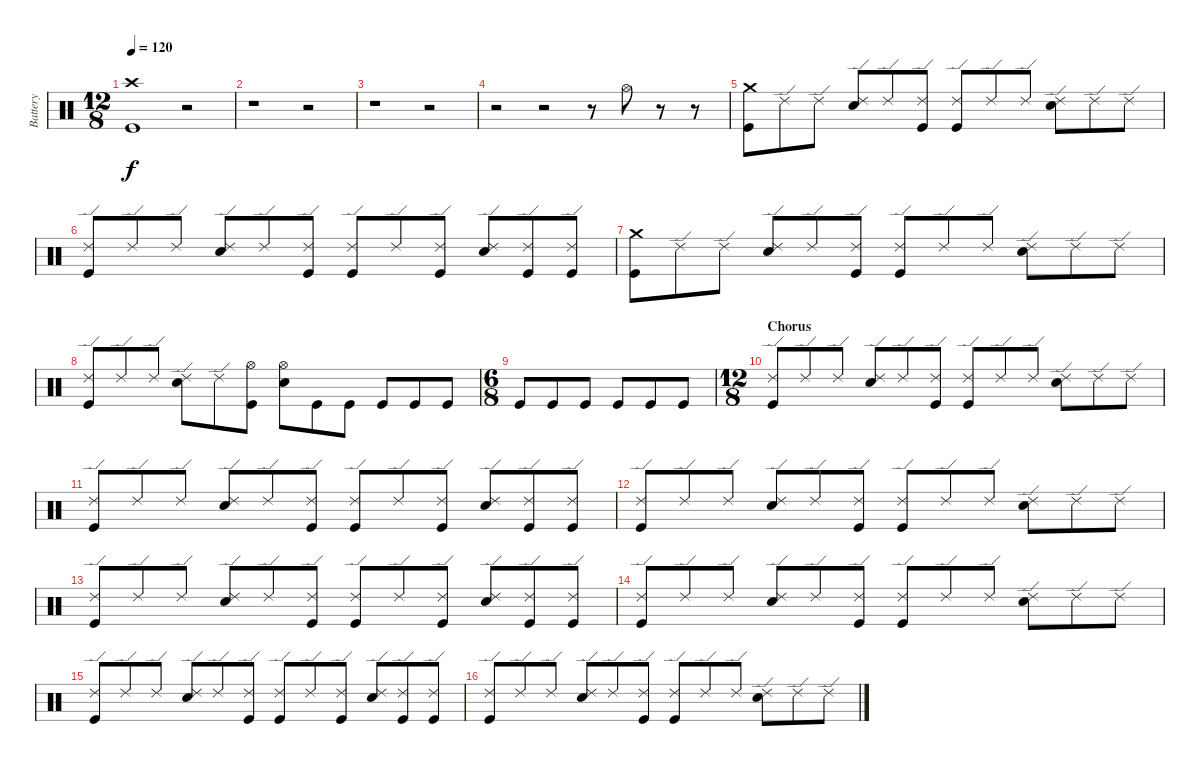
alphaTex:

\track ("Battery" "Battery") {instrument percussion}
\staff {score}
\articulation defaults
\ts (12 8)
\tempo 120
\clef neutral
\ks c
("Crash high (hit)" "Kick (hit)").1{dy f} r.2 |
r.1 r.2 |
r.1 r.2 |
r.2 r.2 r.8 "Hi-Hat (open)".8 r.8 r.8 |
("Crash medium (hit)" "Kick (hit)").8 "Ride (edge) 2".8 "Ride (edge) 2".8 ("Ride (edge) 2" "Electric Snare (hit)").8 "Ride (edge) 2".8 ("Ride (edge) 2" "Kick (hit)").8 ("Ride (edge) 2" "Kick (hit)").8 "Ride (edge) 2".8 "Ride (edge) 2".8 ("Ride (edge) 2" "Electric Snare (hit)").8 "Ride (edge) 2".8 "Ride (edge) 2".8 |
("Ride (edge) 2" "Kick (hit)").8 "Ride (edge) 2".8 "Ride (edge) 2".8 ("Ride (edge) 2" "Electric Snare (hit)").8 "Ride (edge) 2".8 ("Ride (edge) 2" "Kick (hit)").8 ("Ride (edge) 2" "Kick (hit)").8 "Ride (edge) 2".8 ("Ride (edge) 2" "Kick (hit)").8 ("Ride (edge) 2" "Electric Snare (hit)").8 ("Ride (edge) 2" "Kick (hit)").8 ("Ride (edge) 2" "Kick (hit)").8 |
("Crash medium (hit)" "Kick (hit)").8 "Ride (edge) 2".8 "Ride (edge) 2".8 ("Ride (edge) 2" "Electric Snare (hit)").8 "Ride (edge) 2".8 ("Ride (edge) 2" "Kick (hit)").8 ("Ride (edge) 2" "Kick (hit)").8 "Ride (edge) 2".8 "Ride (edge) 2".8 ("Ride (edge) 2" "Electric Snare (hit)").8 "Ride (edge) 2".8 "Ride (edge) 2".8 |
("Ride (edge) 2" "Kick (hit)").8 "Ride (edge) 2".8 "Ride (edge) 2".8 ("Ride (edge) 2" "Electric Snare (hit)").8 "Ride (edge) 2".8 ("Hi-Hat (open)" "Kick (hit)").8 ("Hi-Hat (open)" "Electric Snare (hit)").8 "Kick (hit)".8 "Kick (hit)".8 "Kick (hit)".8 "Kick (hit)".8 "Kick (hit)".8 |
\ts (6 8)
"Kick (hit)".8 "Kick (hit)".8 "Kick (hit)".8 "Kick (hit)".8 "Kick (hit)".8 "Kick (hit)".8 |
\ts (12 8)
\section ("" "Chorus")
("Ride (edge) 2" "Kick (hit)").8 "Ride (edge) 2".8 "Ride (edge) 2".8 ("Ride (edge) 2" "Electric Snare (hit)").8 "Ride (edge) 2".8 ("Ride (edge) 2" "Kick (hit)").8 ("Ride (edge) 2" "Kick (hit)").8 "Ride (edge) 2".8 "Ride (edge) 2".8 ("Ride (edge) 2" "Electric Snare (hit)").8 "Ride (edge) 2".8 "Ride (edge) 2".8 |
("Ride (edge) 2" "Kick (hit)").8 "Ride (edge) 2".8 "Ride (edge) 2".8 ("Ride (edge) 2" "Electric Snare (hit)").8 "Ride (edge) 2".8 ("Ride (edge) 2" "Kick (hit)").8 ("Ride (edge) 2" "Kick (hit)").8 "Ride (edge) 2".8 ("Ride (edge) 2" "Kick (hit)").8 ("Ride (edge) 2" "Electric Snare (hit)").8 ("Ride (edge) 2" "Kick (hit)").8 ("Ride (edge) 2" "Kick (hit)").8 |
("Ride (edge) 2" "Kick (hit)").8 "Ride (edge) 2".8 "Ride (edge) 2".8 ("Ride (edge) 2" "Electric Snare (hit)").8 "Ride (edge) 2".8 ("Ride (edge) 2" "Kick (hit)").8 ("Ride (edge) 2" "Kick (hit)").8 "Ride (edge) 2".8 "Ride (edge) 2".8 ("Ride (edge) 2" "Electric Snare (hit)").8 "Ride (edge) 2".8 "Ride (edge) 2".8 |
("Ride (edge) 2" "Kick (hit)").8 "Ride (edge) 2".8 "Ride (edge) 2".8 ("Ride (edge) 2" "Electric Snare (hit)").8 "Ride (edge) 2".8 ("Ride (edge) 2" "Kick (hit)").8 ("Ride (edge) 2" "Kick (hit)").8 "Ride (edge) 2".8 ("Ride (edge) 2" "Kick (hit)").8 ("Ride (edge) 2" "Electric Snare (hit)").8 ("Ride (edge) 2" "Kick (hit)").8 ("Ride (edge) 2" "Kick (hit)").8 |
("Ride (edge) 2" "Kick (hit)").8 "Ride (edge) 2".8 "Ride (edge) 2".8 ("Ride (edge) 2" "Electric Snare (hit)").8 "Ride (edge) 2".8 ("Ride (edge) 2" "Kick (hit)").8 ("Ride (edge) 2" "Kick (hit)").8 "Ride (edge) 2".8 "Ride (edge) 2".8 ("Ride (edge) 2" "Electric Snare (hit)").8 "Ride (edge) 2".8 "Ride (edge) 2".8 |
("Ride (edge) 2" "Kick (hit)").8 "Ride (edge) 2".8 "Ride (edge) 2".8 ("Ride (edge) 2" "Electric Snare (hit)").8 "Ride (edge) 2".8 ("Ride (edge) 2" "Kick (hit)").8 ("Ride (edge) 2" "Kick (hit)").8 "Ride (edge) 2".8 ("Ride (edge) 2" "Kick (hit)").8 ("Ride (edge) 2" "Electric Snare (hit)").8 ("Ride (edge) 2" "Kick (hit)").8 ("Ride (edge) 2" "Kick (hit)").8 |
("Ride (edge) 2" "Kick (hit)").8 "Ride (edge) 2".8 "Ride (edge) 2".8 ("Ride (edge) 2" "Electric Snare (hit)").8 "Ride (edge) 2".8 ("Ride (edge) 2" "Kick (hit)").8 ("Ride (edge) 2" "Kick (hit)").8 "Ride (edge) 2".8 "Ride (edge) 2".8 ("Ride (edge) 2" "Electric Snare (hit)").8 "Ride (edge) 2".8 "Ride (edge) 2".8
